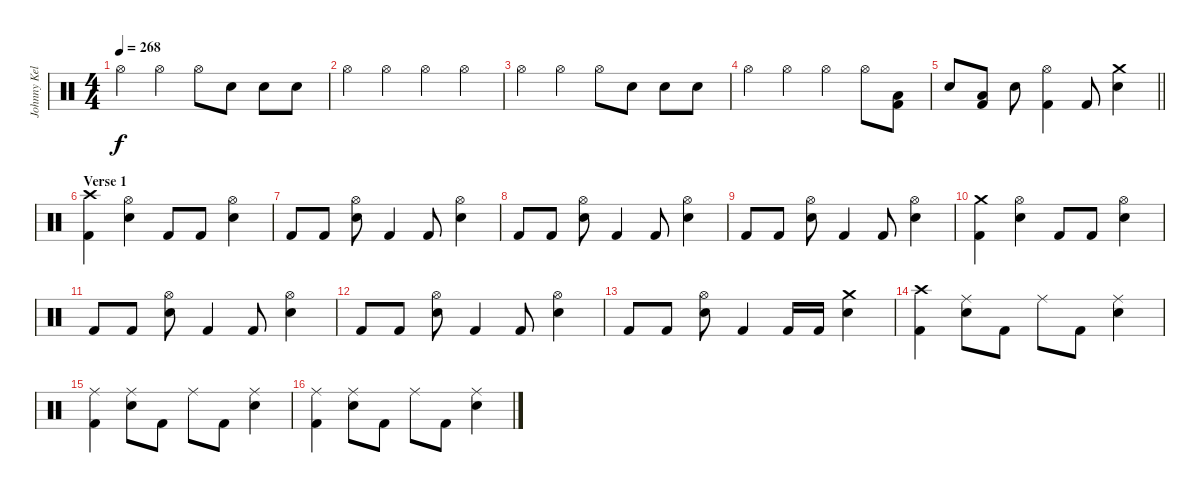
\track ("Johnny Kelly" "Johnny Kel") {instrument percussion}
\staff {score}
\articulation defaults
\ts (4 4)
\tempo 268
\clef neutral
\ks c "Hi-Hat (open)".4{dy f} "Hi-Hat (open)".4 "Hi-Hat (open)".8 "Electric Snare (hit)".8 "Electric Snare (hit)".8 "Electric Snare (hit)".8
|
"Hi-Hat (open)".4 "Hi-Hat (open)".4 "Hi-Hat (open)".4 "Hi-Hat (open)".4 |
"Hi-Hat (open)".4 "Hi-Hat (open)".4 "Hi-Hat (open)".8 "Electric Snare (hit)".8 "Electric Snare (hit)".8 "Electric Snare (hit)".8 |
"Hi-Hat (open)".4 "Hi-Hat (open)".4 "Hi-Hat (open)".4 "Hi-Hat (open)".8 ("Low Floor Tom (hit)" "Kick (hit) 2").8 |
\barLineRight lightlight "Electric Snare (hit)".8
("Low Floor Tom (hit)" "Kick (hit) 2").8 "Electric Snare (hit)".8 ("Hi-Hat (open)" "Kick (hit) 2").4 "Kick (hit) 2".8 ("Crash medium (hit)" "Electric Snare (hit)").4 |
\section ("" "Verse 1")
("Crash high (hit)" "Kick (hit) 2").4 ("Hi-Hat (open)" "Electric Snare (hit)").4 "Kick (hit) 2".8 "Kick (hit) 2".8 ("Hi-Hat (open)" "Electric Snare (hit)").4 |
"Kick (hit) 2".8 "Kick (hit) 2".8 ("Hi-Hat (open)" "Electric Snare (hit)").8 "Kick (hit) 2".4 "Kick (hit) 2".8 ("Hi-Hat (open)" "Electric Snare (hit)").4 |
"Kick (hit) 2".8 "Kick (hit) 2".8 ("Hi-Hat (open)" "Electric Snare (hit)").8 "Kick (hit) 2".4 "Kick (hit) 2".8 ("Hi-Hat (open)" "Electric Snare (hit)").4 |
"Kick (hit) 2".8 "Kick (hit) 2".8 ("Hi-Hat (open)" "Electric Snare (hit)").8 "Kick (hit) 2".4 "Kick (hit) 2".8 ("Hi-Hat (open)" "Electric Snare (hit)").4 |
("Crash medium (hit)" "Kick (hit) 2").4 ("Hi-Hat (open)" "Electric Snare (hit)").4 "Kick (hit) 2".8 "Kick (hit) 2".8 ("Hi-Hat (open)" "Electric Snare (hit)").4 |
"Kick (hit) 2".8 "Kick (hit) 2".8 ("Hi-Hat (open)" "Electric Snare (hit)").8 "Kick (hit) 2".4 "Kick (hit) 2".8 ("Hi-Hat (open)" "Electric Snare (hit)").4 |
"Kick (hit) 2".8 "Kick (hit) 2".8 ("Hi-Hat (open)" "Electric Snare (hit)").8 "Kick (hit) 2".4 "Kick (hit) 2".8 ("Hi-Hat (open)" "Electric Snare (hit)").4 |
"Kick (hit) 2".8 "Kick (hit) 2".8 ("Hi-Hat (open)" "Electric Snare (hit)").8 "Kick (hit) 2".4 "Kick (hit) 2".16 "Kick (hit) 2".16 ("Crash medium (hit)" "Electric Snare (hit)").4 |
("Crash high (hit)" "Kick (hit) 2").4 ("Ride (middle)" "Electric Snare (hit)").8 "Kick (hit) 2".8 "Ride (middle)".8 "Kick (hit) 2".8 ("Ride (middle)" "Electric Snare (hit)").4 |
("Ride (middle)" "Kick (hit) 2").4 ("Ride (middle)" "Electric Snare (hit)").8 "Kick (hit) 2".8 "Ride (middle)".8 "Kick (hit) 2".8 ("Ride (middle)" "Electric Snare (hit)").4 |
("Ride (middle)" "Kick (hit) 2").4 ("Ride (middle)" "Electric Snare (hit)").8 "Kick (hit) 2".8 "Ride (middle)".8 "Kick (hit) 2".8 ("Ride (middle)" "Electric Snare (hit)").4
